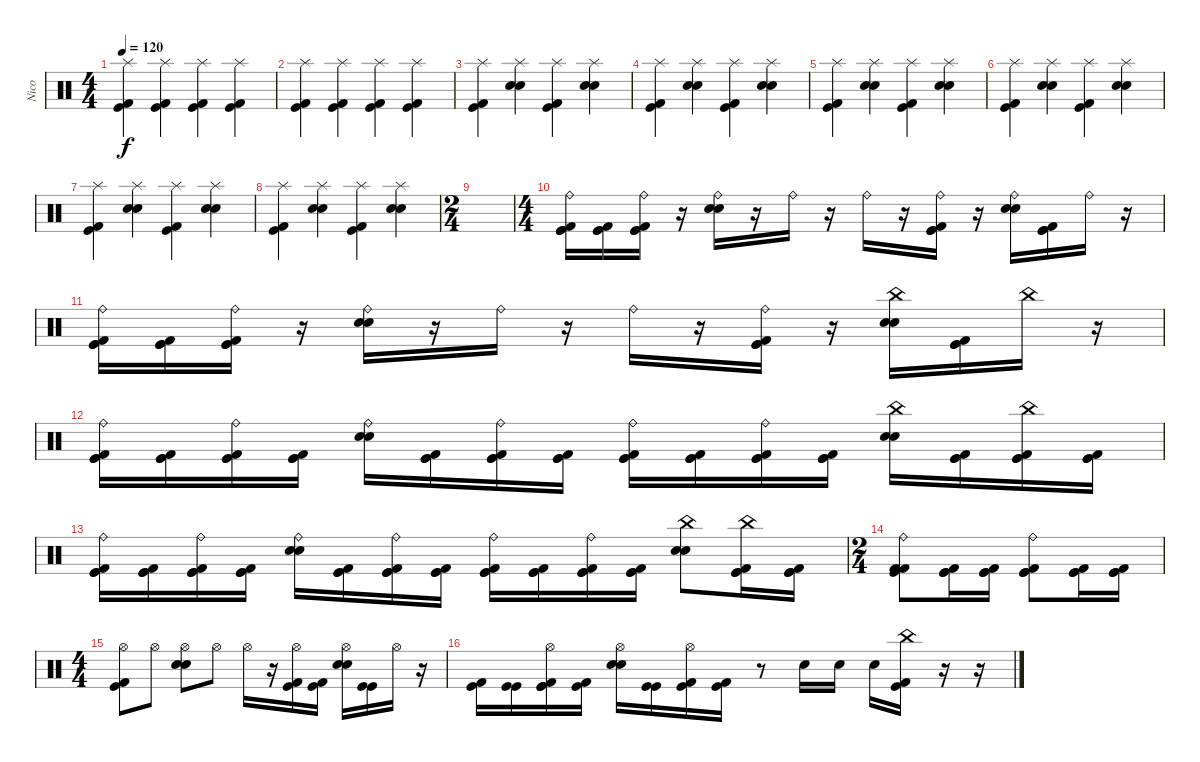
\track ("Nico" "Nico") {instrument percussion}
\staff {score}
\articulation defaults
\ts (4 4)
\tempo 120
\clef neutral
\ks c
("Splash (hit)" "Kick (hit) 2" "Kick (hit)").4{dy f} ("Splash (hit)" "Kick (hit)" "Kick (hit) 2").4 ("Splash (hit)" "Kick (hit) 2" "Kick (hit)").4 ("Splash (hit)" "Kick (hit)" "Kick (hit) 2").4 |
("Splash (hit)" "Kick (hit) 2" "Kick (hit)").4 ("Splash (hit)" "Kick (hit)" "Kick (hit) 2").4 ("Splash (hit)" "Kick (hit) 2" "Kick (hit)").4 ("Splash (hit)" "Kick (hit)" "Kick (hit) 2").4 |
("Splash (hit)" "Kick (hit) 2" "Kick (hit)").4 ("Splash (hit)" "Snare (hit) 2" "Snare (hit) 2").4 ("Splash (hit)" "Kick (hit) 2" "Kick (hit)").4 ("Splash (hit)" "Snare (hit) 2" "Snare (hit) 2").4 |
("Splash (hit)" "Kick (hit) 2" "Kick (hit)").4 ("Splash (hit)" "Snare (hit) 2" "Snare (hit) 2").4 ("Splash (hit)" "Kick (hit) 2" "Kick (hit)").4 ("Splash (hit)" "Snare (hit) 2" "Snare (hit) 2").4 |
("Splash (hit)" "Kick (hit) 2" "Kick (hit)").4 ("Splash (hit)" "Snare (hit) 2" "Snare (hit) 2").4 ("Splash (hit)" "Kick (hit) 2" "Kick (hit)").4 ("Splash (hit)" "Snare (hit) 2" "Snare (hit) 2").4 |
("Splash (hit)" "Kick (hit) 2" "Kick (hit)").4 ("Splash (hit)" "Snare (hit) 2" "Snare (hit) 2").4 ("Splash (hit)" "Kick (hit) 2" "Kick (hit)").4 ("Splash (hit)" "Snare (hit) 2" "Snare (hit) 2").4 |
("Splash (hit)" "Kick (hit) 2" "Kick (hit)").4 ("Splash (hit)" "Snare (hit) 2" "Snare (hit) 2").4 ("Splash (hit)" "Kick (hit) 2" "Kick (hit)").4 ("Splash (hit)" "Snare (hit) 2" "Snare (hit) 2").4 |
("Splash (hit)" "Kick (hit) 2" "Kick (hit)").4 ("Splash (hit)" "Snare (hit) 2" "Snare (hit) 2").4 ("Splash (hit)" "Kick (hit) 2" "Kick (hit)").4 ("Splash (hit)" "Snare (hit) 2" "Snare (hit) 2").4 |
\ts (2 4)
|
\ts (4 4)
("Ride (bell)" "Kick (hit)" "Kick (hit) 2" "Kick (hit)").16 ("Kick (hit)" "Kick (hit)" "Kick (hit) 2").16 ("Ride (bell)" "Kick (hit)" "Kick (hit) 2" "Kick (hit)").16 r.16 ("Ride (bell)" "Snare (hit) 2" "Snare (hit) 2").16 r.16 "Ride (bell)".16 r.16 "Ride (bell)".16 r.16 ("Ride (bell)" "Kick (hit)" "Kick (hit) 2" "Kick (hit)").16 r.16 ("Ride (bell)" "Snare (hit) 2" "Snare (hit) 2").16 ("Kick (hit) 2" "Kick (hit)" "Kick (hit)").16 "Ride (bell)".16 r.16 |
("Ride (bell)" "Kick (hit)" "Kick (hit) 2" "Kick (hit)").16 ("Kick (hit)" "Kick (hit)" "Kick (hit) 2").16 ("Ride (bell)" "Kick (hit)" "Kick (hit) 2" "Kick (hit)").16 r.16 ("Ride (bell)" "Snare (hit) 2" "Snare (hit) 2").16 r.16 "Ride (bell)".16 r.16 "Ride (bell)".16 r.16 ("Ride (bell)" "Kick (hit)" "Kick (hit) 2" "Kick (hit)").16 r.16 ("China (hit)" "Snare (hit) 2" "Snare (hit) 2").16 ("Kick (hit) 2" "Kick (hit)" "Kick (hit)").16 "China (hit)".16 r.16 |
("Ride (bell)" "Kick (hit)" "Kick (hit) 2" "Kick (hit)").16 ("Kick (hit)" "Kick (hit)" "Kick (hit) 2").16 ("Ride (bell)" "Kick (hit)" "Kick (hit) 2" "Kick (hit)").16 ("Kick (hit)" "Kick (hit)" "Kick (hit) 2").16 ("Ride (bell)" "Snare (hit) 2" "Snare (hit) 2").16 ("Kick (hit) 2" "Kick (hit)" "Kick (hit)").16 ("Ride (bell)" "Kick (hit) 2" "Kick (hit)" "Kick (hit)").16 ("Kick (hit) 2" "Kick (hit)" "Kick (hit)").16 ("Ride (bell)" "Kick (hit) 2" "Kick (hit)" "Kick (hit)").16 ("Kick (hit) 2" "Kick (hit)" "Kick (hit)").16 ("Ride (bell)" "Kick (hit) 2" "Kick (hit)" "Kick (hit)").16 ("Kick (hit) 2" "Kick (hit)" "Kick (hit)").16 ("China (hit)" "Snare (hit) 2" "Snare (hit) 2").16 ("Kick (hit) 2" "Kick (hit)" "Kick (hit)").16 ("China (hit)" "Kick (hit) 2" "Kick (hit)" "Kick (hit)").16 ("Kick (hit) 2" "Kick (hit)" "Kick (hit)").16 |
("Ride (bell)" "Kick (hit)" "Kick (hit) 2" "Kick (hit)").16 ("Kick (hit)" "Kick (hit)" "Kick (hit) 2").16 ("Ride (bell)" "Kick (hit)" "Kick (hit) 2" "Kick (hit)").16 ("Kick (hit)" "Kick (hit)" "Kick (hit) 2").16 ("Ride (bell)" "Snare (hit) 2" "Snare (hit) 2").16 ("Kick (hit) 2" "Kick (hit)" "Kick (hit)").16 ("Ride (bell)" "Kick (hit) 2" "Kick (hit)" "Kick (hit)").16 ("Kick (hit) 2" "Kick (hit)" "Kick (hit)").16 ("Ride (bell)" "Kick (hit) 2" "Kick (hit)" "Kick (hit)").16 ("Kick (hit) 2" "Kick (hit)" "Kick (hit)").16 ("Ride (bell)" "Kick (hit) 2" "Kick (hit)" "Kick (hit)").16 ("Kick (hit) 2" "Kick (hit)" "Kick (hit)").16 ("China (hit)" "Snare (hit) 2" "Snare (hit) 2").8 ("China (hit)" "Kick (hit) 2" "Kick (hit)" "Kick (hit)").16 ("Kick (hit) 2" "Kick (hit)" "Kick (hit)").16 |
\ts (2 4)
("Ride (bell)" "Kick (hit) 2" "Kick (hit) 2" "Kick (hit)").8 ("Kick (hit)" "Kick (hit)" "Kick (hit) 2").16 ("Kick (hit)" "Kick (hit) 2" "Kick (hit)").16 ("Ride (bell)" "Kick (hit)" "Kick (hit) 2" "Kick (hit)").8 ("Kick (hit)" "Kick (hit)" "Kick (hit) 2").16 ("Kick (hit) 2" "Kick (hit)" "Kick (hit)").16 |
\ts (4 4)
("Hi-Hat (open)" "Kick (hit)" "Kick (hit) 2").8 "Hi-Hat (open)".8 ("Hi-Hat (open)" "Snare (hit) 2" "Snare (hit) 2").8 "Hi-Hat (open)".8 "Hi-Hat (open)".16 r.16 ("Hi-Hat (open)" "Kick (hit) 2" "Kick (hit)").16 ("Kick (hit) 2" "Kick (hit)").16 ("Hi-Hat (open)" "Snare (hit) 2" "Snare (hit) 2").16 ("Kick (hit)" "Kick (hit)").16 "Hi-Hat (open)".16 r.16 |
("Kick (hit)" "Kick (hit) 2").16 ("Kick (hit)" "Kick (hit)").16 ("Hi-Hat (open)" "Kick (hit)" "Kick (hit) 2" "Kick (hit)").16 ("Kick (hit)" "Kick (hit) 2").16 ("Hi-Hat (open)" "Snare (hit) 2" "Snare (hit) 2").16 ("Kick (hit)" "Kick (hit)").16 ("Hi-Hat (open)" "Kick (hit) 2" "Kick (hit)").16 ("Kick (hit)" "Kick (hit) 2").16 r.8 "Snare (hit) 2".16 "Snare (hit) 2".16 "Snare (hit) 2".16 ("China (hit)" "Kick (hit) 2" "Kick (hit)").16 r.16 r.16
